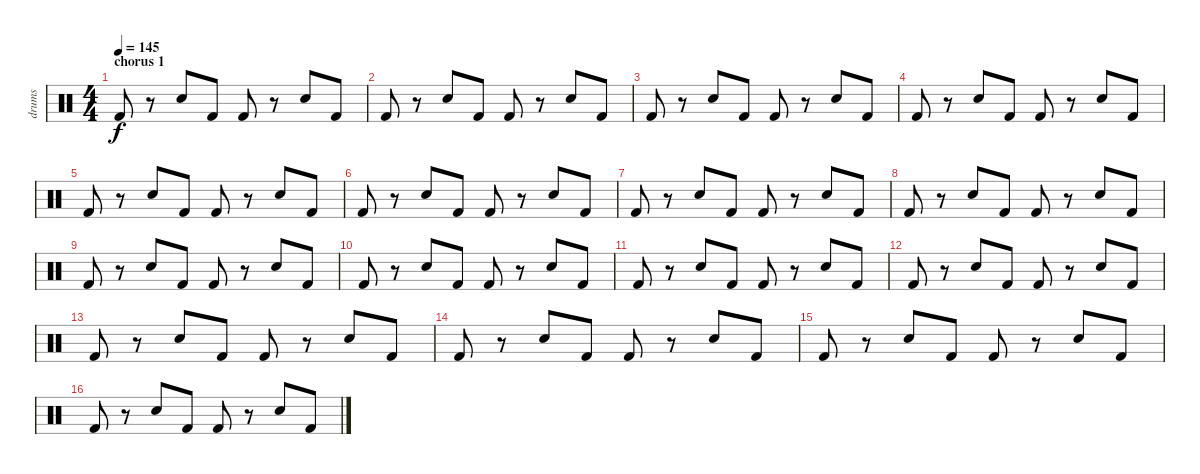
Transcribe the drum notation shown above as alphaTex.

\track ("drums" "drums") {instrument percussion}
\staff {score}
\articulation defaults
\ts (4 4)
\section ("" "chorus 1")
\tempo 145
\clef neutral
\ks c "Kick (hit) 2".8{dy f}
r.8 "Snare (hit) 2".8 "Kick (hit) 2".8 "Kick (hit) 2".8 r.8 "Snare (hit) 2".8 "Kick (hit) 2".8 |
"Kick (hit) 2".8 r.8 "Snare (hit) 2".8 "Kick (hit) 2".8 "Kick (hit) 2".8 r.8 "Snare (hit) 2".8 "Kick (hit) 2".8 |
"Kick (hit) 2".8 r.8 "Snare (hit) 2".8 "Kick (hit) 2".8 "Kick (hit) 2".8 r.8 "Snare (hit) 2".8 "Kick (hit) 2".8 |
"Kick (hit) 2".8 r.8 "Snare (hit) 2".8 "Kick (hit) 2".8 "Kick (hit) 2".8 r.8 "Snare (hit) 2".8 "Kick (hit) 2".8 |
"Kick (hit) 2".8 r.8 "Snare (hit) 2".8 "Kick (hit) 2".8 "Kick (hit) 2".8 r.8 "Snare (hit) 2".8 "Kick (hit) 2".8 |
"Kick (hit) 2".8 r.8 "Snare (hit) 2".8 "Kick (hit) 2".8 "Kick (hit) 2".8 r.8 "Snare (hit) 2".8 "Kick (hit) 2".8 |
"Kick (hit) 2".8 r.8 "Snare (hit) 2".8 "Kick (hit) 2".8 "Kick (hit) 2".8 r.8 "Snare (hit) 2".8 "Kick (hit) 2".8 |
"Kick (hit) 2".8 r.8 "Snare (hit) 2".8 "Kick (hit) 2".8 "Kick (hit) 2".8 r.8 "Snare (hit) 2".8 "Kick (hit) 2".8 |
"Kick (hit) 2".8 r.8 "Snare (hit) 2".8 "Kick (hit) 2".8 "Kick (hit) 2".8 r.8 "Snare (hit) 2".8 "Kick (hit) 2".8 |
"Kick (hit) 2".8 r.8 "Snare (hit) 2".8 "Kick (hit) 2".8 "Kick (hit) 2".8 r.8 "Snare (hit) 2".8 "Kick (hit) 2".8 |
"Kick (hit) 2".8 r.8 "Snare (hit) 2".8 "Kick (hit) 2".8 "Kick (hit) 2".8 r.8 "Snare (hit) 2".8 "Kick (hit) 2".8 |
"Kick (hit) 2".8 r.8 "Snare (hit) 2".8 "Kick (hit) 2".8 "Kick (hit) 2".8 r.8 "Snare (hit) 2".8 "Kick (hit) 2".8 |
"Kick (hit) 2".8 r.8 "Snare (hit) 2".8 "Kick (hit) 2".8 "Kick (hit) 2".8 r.8 "Snare (hit) 2".8 "Kick (hit) 2".8 |
"Kick (hit) 2".8 r.8 "Snare (hit) 2".8 "Kick (hit) 2".8 "Kick (hit) 2".8 r.8 "Snare (hit) 2".8 "Kick (hit) 2".8 |
"Kick (hit) 2".8 r.8 "Snare (hit) 2".8 "Kick (hit) 2".8 "Kick (hit) 2".8 r.8 "Snare (hit) 2".8 "Kick (hit) 2".8 |
"Kick (hit) 2".8 r.8 "Snare (hit) 2".8 "Kick (hit) 2".8 "Kick (hit) 2".8 r.8 "Snare (hit) 2".8 "Kick (hit) 2".8
